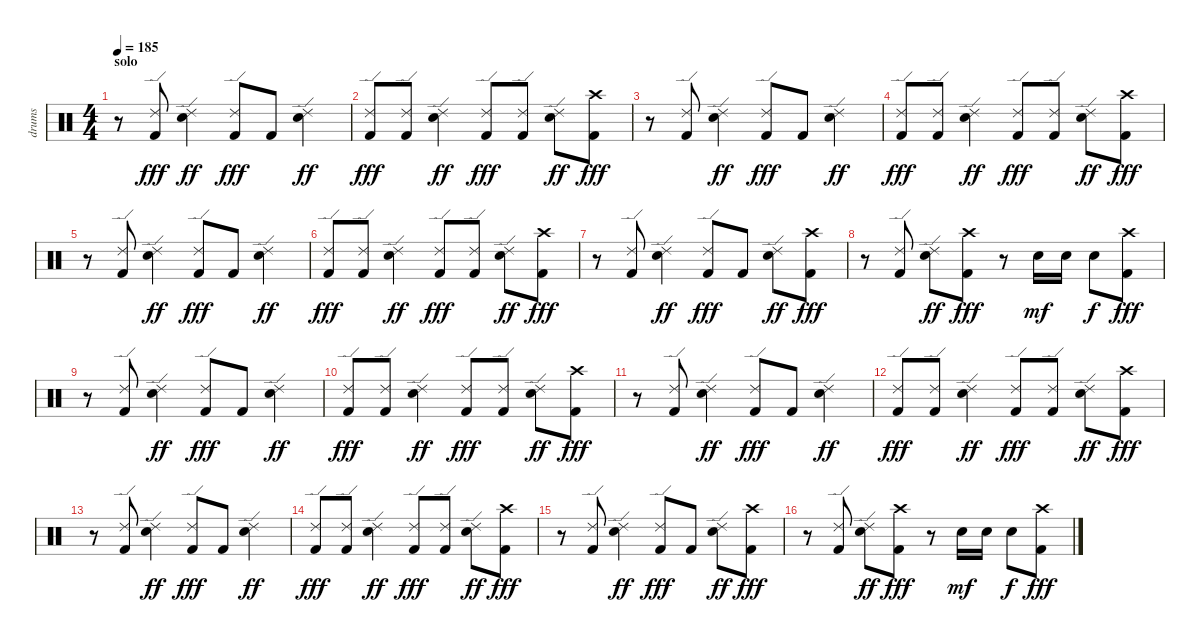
\track ("drums" "drums") {instrument percussion}
\staff {score}
\articulation defaults
\ts (4 4)
\section ("" "solo")
\tempo 185
\clef neutral
\ks c
r.8{dy fff} ("Ride (edge) 2" "Kick (hit) 2").8 ("Ride (edge) 2" "Snare (hit) 2").4{dy ff} ("Ride (edge) 2" "Kick (hit) 2").8{dy fff} "Kick (hit) 2".8 ("Ride (edge) 2" "Snare (hit) 2").4{dy ff} |
("Ride (edge) 2" "Kick (hit) 2").8{dy fff} ("Ride (edge) 2" "Kick (hit) 2").8 ("Ride (edge) 2" "Snare (hit) 2").4{dy ff} ("Ride (edge) 2" "Kick (hit) 2").8{dy fff} ("Ride (edge) 2" "Kick (hit) 2").8 ("Ride (edge) 2" "Snare (hit) 2").8{dy ff} ("Crash high (hit)" "Kick (hit) 2").8{dy fff} |
r.8 ("Ride (edge) 2" "Kick (hit) 2").8 ("Ride (edge) 2" "Snare (hit) 2").4{dy ff} ("Ride (edge) 2" "Kick (hit) 2").8{dy fff} "Kick (hit) 2".8 ("Ride (edge) 2" "Snare (hit) 2").4{dy ff} |
("Ride (edge) 2" "Kick (hit) 2").8{dy fff} ("Ride (edge) 2" "Kick (hit) 2").8 ("Ride (edge) 2" "Snare (hit) 2").4{dy ff} ("Ride (edge) 2" "Kick (hit) 2").8{dy fff} ("Ride (edge) 2" "Kick (hit) 2").8 ("Ride (edge) 2" "Snare (hit) 2").8{dy ff} ("Crash high (hit)" "Kick (hit) 2").8{dy fff} |
r.8 ("Ride (edge) 2" "Kick (hit) 2").8 ("Ride (edge) 2" "Snare (hit) 2").4{dy ff} ("Ride (edge) 2" "Kick (hit) 2").8{dy fff} "Kick (hit) 2".8 ("Ride (edge) 2" "Snare (hit) 2").4{dy ff} |
("Ride (edge) 2" "Kick (hit) 2").8{dy fff} ("Ride (edge) 2" "Kick (hit) 2").8 ("Ride (edge) 2" "Snare (hit) 2").4{dy ff} ("Ride (edge) 2" "Kick (hit) 2").8{dy fff} ("Ride (edge) 2" "Kick (hit) 2").8 ("Ride (edge) 2" "Snare (hit) 2").8{dy ff} ("Crash high (hit)" "Kick (hit) 2").8{dy fff} |
r.8 ("Ride (edge) 2" "Kick (hit) 2").8 ("Ride (edge) 2" "Snare (hit) 2").4{dy ff} ("Ride (edge) 2" "Kick (hit) 2").8{dy fff} "Kick (hit) 2".8 ("Ride (edge) 2" "Snare (hit) 2").8{dy ff} ("Crash high (hit)" "Kick (hit) 2").8{dy fff} |
r.8 ("Ride (edge) 2" "Kick (hit) 2").8 ("Ride (edge) 2" "Snare (hit) 2").8{dy ff} ("Crash high (hit)" "Kick (hit) 2").8{dy fff} r.8 "Snare (hit) 2".16{dy mf} "Snare (hit) 2".16 "Snare (hit) 2".8{dy f} ("Crash high (hit)" "Kick (hit) 2").8{dy fff} |
r.8 ("Ride (edge) 2" "Kick (hit) 2").8 ("Ride (edge) 2" "Snare (hit) 2").4{dy ff} ("Ride (edge) 2" "Kick (hit) 2").8{dy fff} "Kick (hit) 2".8 ("Ride (edge) 2" "Snare (hit) 2").4{dy ff} |
("Ride (edge) 2" "Kick (hit) 2").8{dy fff} ("Ride (edge) 2" "Kick (hit) 2").8 ("Ride (edge) 2" "Snare (hit) 2").4{dy ff} ("Ride (edge) 2" "Kick (hit) 2").8{dy fff} ("Ride (edge) 2" "Kick (hit) 2").8 ("Ride (edge) 2" "Snare (hit) 2").8{dy ff} ("Crash high (hit)" "Kick (hit) 2").8{dy fff} |
r.8 ("Ride (edge) 2" "Kick (hit) 2").8 ("Ride (edge) 2" "Snare (hit) 2").4{dy ff} ("Ride (edge) 2" "Kick (hit) 2").8{dy fff} "Kick (hit) 2".8 ("Ride (edge) 2" "Snare (hit) 2").4{dy ff} |
("Ride (edge) 2" "Kick (hit) 2").8{dy fff} ("Ride (edge) 2" "Kick (hit) 2").8 ("Ride (edge) 2" "Snare (hit) 2").4{dy ff} ("Ride (edge) 2" "Kick (hit) 2").8{dy fff} ("Ride (edge) 2" "Kick (hit) 2").8 ("Ride (edge) 2" "Snare (hit) 2").8{dy ff} ("Crash high (hit)" "Kick (hit) 2").8{dy fff} |
r.8 ("Ride (edge) 2" "Kick (hit) 2").8 ("Ride (edge) 2" "Snare (hit) 2").4{dy ff} ("Ride (edge) 2" "Kick (hit) 2").8{dy fff} "Kick (hit) 2".8 ("Ride (edge) 2" "Snare (hit) 2").4{dy ff} |
("Ride (edge) 2" "Kick (hit) 2").8{dy fff} ("Ride (edge) 2" "Kick (hit) 2").8 ("Ride (edge) 2" "Snare (hit) 2").4{dy ff} ("Ride (edge) 2" "Kick (hit) 2").8{dy fff} ("Ride (edge) 2" "Kick (hit) 2").8 ("Ride (edge) 2" "Snare (hit) 2").8{dy ff} ("Crash high (hit)" "Kick (hit) 2").8{dy fff} |
r.8 ("Ride (edge) 2" "Kick (hit) 2").8 ("Ride (edge) 2" "Snare (hit) 2").4{dy ff} ("Ride (edge) 2" "Kick (hit) 2").8{dy fff} "Kick (hit) 2".8 ("Ride (edge) 2" "Snare (hit) 2").8{dy ff} ("Crash high (hit)" "Kick (hit) 2").8{dy fff} |
r.8 ("Ride (edge) 2" "Kick (hit) 2").8 ("Ride (edge) 2" "Snare (hit) 2").8{dy ff} ("Crash high (hit)" "Kick (hit) 2").8{dy fff} r.8 "Snare (hit) 2".16{dy mf} "Snare (hit) 2".16 "Snare (hit) 2".8{dy f} ("Crash high (hit)" "Kick (hit) 2").8{dy fff}
